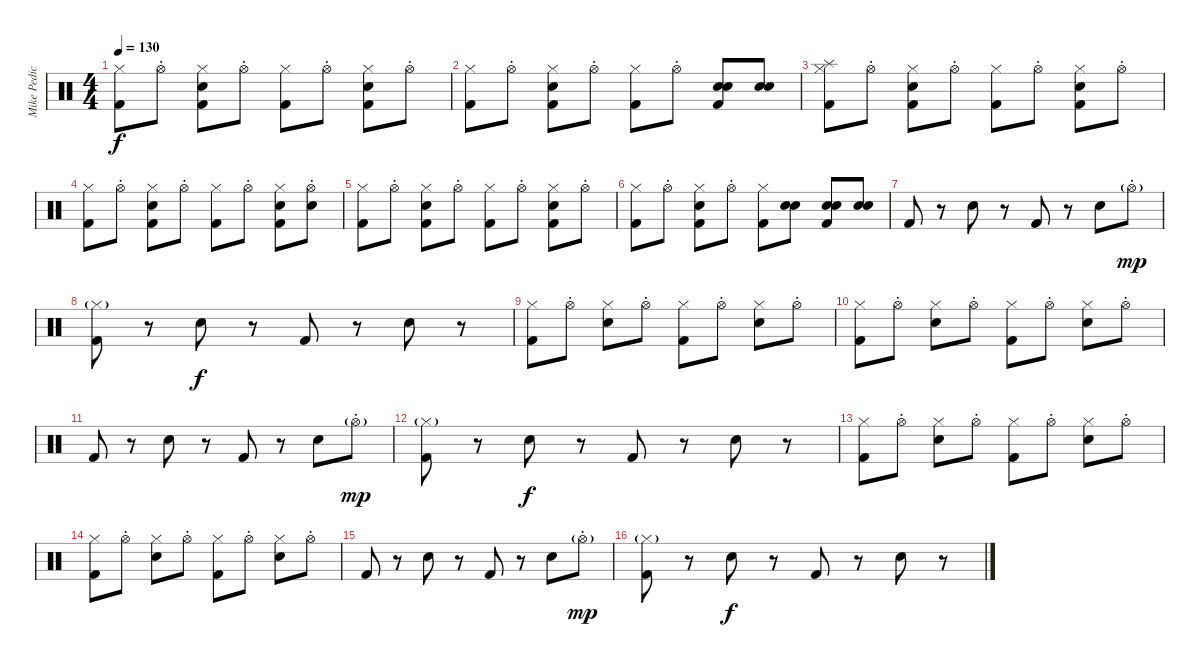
\track ("Mike Pedicone - Drum" "Mike Pedic") {instrument percussion}
\staff {score}
\articulation defaults
\ts (4 4)
\tempo 130
\clef neutral
\ks c
("Hi-Hat (closed)" "Kick (hit) 2").8{dy f} "Hi-Hat (open)"{st}.8 ("Hi-Hat (closed)" "Electric Snare (hit)" "Kick (hit) 2").8 "Hi-Hat (open)"{st}.8 ("Hi-Hat (closed)" "Kick (hit) 2").8 "Hi-Hat (open)"{st}.8 ("Hi-Hat (closed)" "Electric Snare (hit)" "Kick (hit) 2").8 "Hi-Hat (open)"{st}.8 |
("Hi-Hat (closed)" "Kick (hit) 2").8 "Hi-Hat (open)"{st}.8 ("Hi-Hat (closed)" "Electric Snare (hit)" "Kick (hit) 2").8 "Hi-Hat (open)"{st}.8 ("Hi-Hat (closed)" "Kick (hit) 2").8 "Hi-Hat (open)"{st}.8 ("Hand Clap (hit)" "Electric Snare (hit)" "Kick (hit) 2").8 ("Hand Clap (hit)" "Electric Snare (hit)").8 |
("Hi-Hat (closed)" "Splash (hit)" "Kick (hit) 2").8 "Hi-Hat (open)"{st}.8 ("Hi-Hat (closed)" "Electric Snare (hit)" "Kick (hit) 2").8 "Hi-Hat (open)"{st}.8 ("Hi-Hat (closed)" "Kick (hit) 2").8 "Hi-Hat (open)"{st}.8 ("Hi-Hat (closed)" "Electric Snare (hit)" "Kick (hit) 2").8 "Hi-Hat (open)"{st}.8 |
("Hi-Hat (closed)" "Kick (hit) 2").8 "Hi-Hat (open)"{st}.8 ("Hi-Hat (closed)" "Electric Snare (hit)" "Kick (hit) 2").8 "Hi-Hat (open)"{st}.8 ("Hi-Hat (closed)" "Kick (hit) 2").8 "Hi-Hat (open)"{st}.8 ("Hi-Hat (closed)" "Electric Snare (hit)" "Kick (hit) 2").8 ("Hi-Hat (open)"{st} "Electric Snare (hit)").8 |
("Hi-Hat (closed)" "Kick (hit) 2").8 "Hi-Hat (open)"{st}.8 ("Hi-Hat (closed)" "Electric Snare (hit)" "Kick (hit) 2").8 "Hi-Hat (open)"{st}.8 ("Hi-Hat (closed)" "Kick (hit) 2").8 "Hi-Hat (open)"{st}.8 ("Hi-Hat (closed)" "Electric Snare (hit)" "Kick (hit) 2").8 "Hi-Hat (open)"{st}.8 |
("Hi-Hat (closed)" "Kick (hit) 2").8 "Hi-Hat (open)"{st}.8 ("Hi-Hat (closed)" "Electric Snare (hit)" "Kick (hit) 2").8 "Hi-Hat (open)"{st}.8 ("Hi-Hat (closed)" "Kick (hit) 2").8 ("Hand Clap (hit)" "Electric Snare (hit)").8 ("Hand Clap (hit)" "Electric Snare (hit)" "Kick (hit) 2").8 ("Hand Clap (hit)" "Electric Snare (hit)").8 |
"Kick (hit) 2".8 r.8 "Electric Snare (hit)".8 r.8 "Kick (hit) 2".8 r.8 "Electric Snare (hit)".8 "Hi-Hat (open)"{g st}.8{dy mp} |
("Hi-Hat (closed)"{g} "Kick (hit) 2").8 r.8 "Electric Snare (hit)".8{dy f} r.8 "Kick (hit) 2".8 r.8 "Electric Snare (hit)".8 r.8 |
("Hi-Hat (closed)" "Kick (hit) 2").8 "Hi-Hat (open)"{st}.8 ("Hi-Hat (closed)" "Electric Snare (hit)").8 "Hi-Hat (open)"{st}.8 ("Hi-Hat (closed)" "Kick (hit) 2").8 "Hi-Hat (open)"{st}.8 ("Hi-Hat (closed)" "Electric Snare (hit)").8 "Hi-Hat (open)"{st}.8 |
("Hi-Hat (closed)" "Kick (hit) 2").8 "Hi-Hat (open)"{st}.8 ("Hi-Hat (closed)" "Electric Snare (hit)").8 "Hi-Hat (open)"{st}.8 ("Hi-Hat (closed)" "Kick (hit) 2").8 "Hi-Hat (open)"{st}.8 ("Hi-Hat (closed)" "Electric Snare (hit)").8 "Hi-Hat (open)"{st}.8 |
"Kick (hit) 2".8 r.8 "Electric Snare (hit)".8 r.8 "Kick (hit) 2".8 r.8 "Electric Snare (hit)".8 "Hi-Hat (open)"{g st}.8{dy mp} |
("Hi-Hat (closed)"{g} "Kick (hit) 2").8 r.8 "Electric Snare (hit)".8{dy f} r.8 "Kick (hit) 2".8 r.8 "Electric Snare (hit)".8 r.8 |
("Hi-Hat (closed)" "Kick (hit) 2").8 "Hi-Hat (open)"{st}.8 ("Hi-Hat (closed)" "Electric Snare (hit)").8 "Hi-Hat (open)"{st}.8 ("Hi-Hat (closed)" "Kick (hit) 2").8 "Hi-Hat (open)"{st}.8 ("Hi-Hat (closed)" "Electric Snare (hit)").8 "Hi-Hat (open)"{st}.8 |
("Hi-Hat (closed)" "Kick (hit) 2").8 "Hi-Hat (open)"{st}.8 ("Hi-Hat (closed)" "Electric Snare (hit)").8 "Hi-Hat (open)"{st}.8 ("Hi-Hat (closed)" "Kick (hit) 2").8 "Hi-Hat (open)"{st}.8 ("Hi-Hat (closed)" "Electric Snare (hit)").8 "Hi-Hat (open)"{st}.8 |
"Kick (hit) 2".8 r.8 "Electric Snare (hit)".8 r.8 "Kick (hit) 2".8 r.8 "Electric Snare (hit)".8 "Hi-Hat (open)"{g st}.8{dy mp} |
("Hi-Hat (closed)"{g} "Kick (hit) 2").8 r.8 "Electric Snare (hit)".8{dy f} r.8 "Kick (hit) 2".8 r.8 "Electric Snare (hit)".8 r.8
